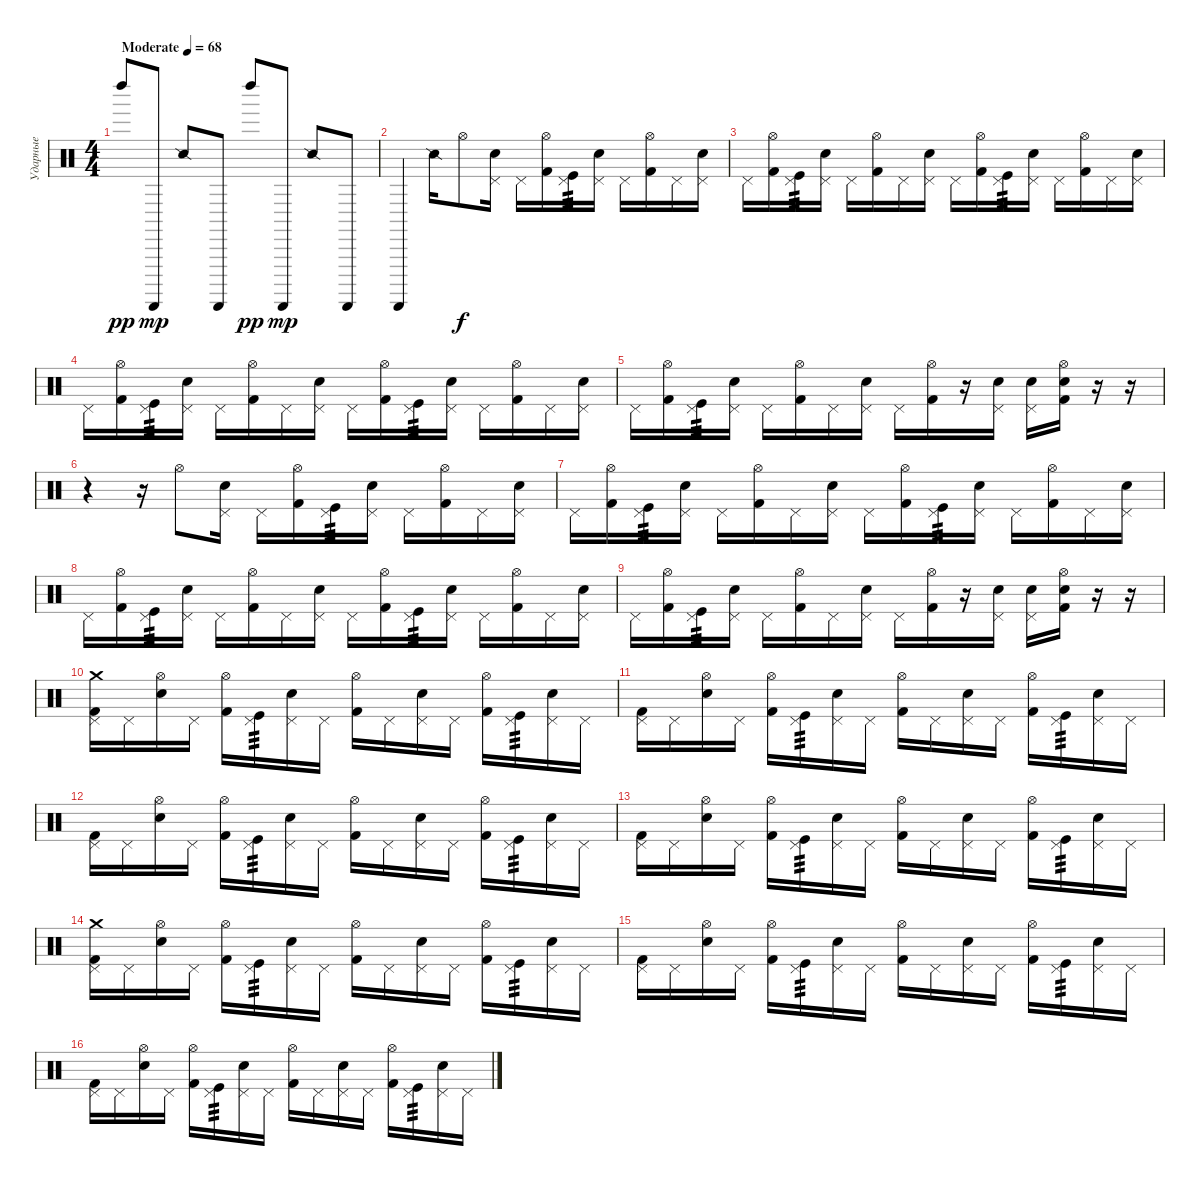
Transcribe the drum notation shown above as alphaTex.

\track ("Ударные" "Ударные") {instrument percussion}
\staff {score}
\articulation defaults
\ts (4 4)
\tempo (68 "Moderate")
\clef neutral
\ks c "Left Maraca (hit)".8{dy pp} "Guiro (scrap-return)".8{dy mp} "Snare (side stick) 2".8 "Guiro (scrap-return)".8 "Left Maraca (hit)".8{dy pp} "Guiro (scrap-return)".8{dy mp} "Snare (side stick) 2".8 "Guiro (scrap-return)".8
|
"Guiro (scrap-return)".4 "Snare (side stick) 2".16 "Hi-Hat (open)".8{dy f} ("Pedal Hi-Hat (hit)" "Snare (hit) 2").16 "Pedal Hi-Hat (hit)".16 ("Hi-Hat (open)" "Kick (hit) 2").16 ("Pedal Hi-Hat (hit)" "Kick (hit)").16{tp 3} ("Pedal Hi-Hat (hit)" "Snare (hit) 2").16 "Pedal Hi-Hat (hit)".16 ("Hi-Hat (open)" "Kick (hit) 2").16 "Pedal Hi-Hat (hit)".16 ("Pedal Hi-Hat (hit)" "Snare (hit) 2").16 |
"Pedal Hi-Hat (hit)".16 ("Hi-Hat (open)" "Kick (hit) 2").16 ("Pedal Hi-Hat (hit)" "Kick (hit)").16{tp 3} ("Pedal Hi-Hat (hit)" "Snare (hit) 2").16 "Pedal Hi-Hat (hit)".16 ("Hi-Hat (open)" "Kick (hit) 2").16 "Pedal Hi-Hat (hit)".16 ("Pedal Hi-Hat (hit)" "Snare (hit) 2").16 "Pedal Hi-Hat (hit)".16 ("Hi-Hat (open)" "Kick (hit) 2").16 ("Pedal Hi-Hat (hit)" "Kick (hit)").16{tp 3} ("Pedal Hi-Hat (hit)" "Snare (hit) 2").16 "Pedal Hi-Hat (hit)".16 ("Hi-Hat (open)" "Kick (hit) 2").16 "Pedal Hi-Hat (hit)".16 ("Pedal Hi-Hat (hit)" "Snare (hit) 2").16 |
"Pedal Hi-Hat (hit)".16 ("Hi-Hat (open)" "Kick (hit) 2").16 ("Pedal Hi-Hat (hit)" "Kick (hit)").16{tp 3} ("Pedal Hi-Hat (hit)" "Snare (hit) 2").16 "Pedal Hi-Hat (hit)".16 ("Hi-Hat (open)" "Kick (hit) 2").16 "Pedal Hi-Hat (hit)".16 ("Pedal Hi-Hat (hit)" "Snare (hit) 2").16 "Pedal Hi-Hat (hit)".16 ("Hi-Hat (open)" "Kick (hit) 2").16 ("Pedal Hi-Hat (hit)" "Kick (hit)").16{tp 3} ("Pedal Hi-Hat (hit)" "Snare (hit) 2").16 "Pedal Hi-Hat (hit)".16 ("Hi-Hat (open)" "Kick (hit) 2").16 "Pedal Hi-Hat (hit)".16 ("Pedal Hi-Hat (hit)" "Snare (hit) 2").16 |
"Pedal Hi-Hat (hit)".16 ("Hi-Hat (open)" "Kick (hit) 2").16 ("Pedal Hi-Hat (hit)" "Kick (hit)").16{tp 3} ("Pedal Hi-Hat (hit)" "Snare (hit) 2").16 "Pedal Hi-Hat (hit)".16 ("Hi-Hat (open)" "Kick (hit) 2").16 "Pedal Hi-Hat (hit)".16 ("Pedal Hi-Hat (hit)" "Snare (hit) 2").16 "Pedal Hi-Hat (hit)".16 ("Hi-Hat (open)" "Kick (hit) 2").16 r.16 ("Pedal Hi-Hat (hit)" "Snare (hit) 2").16 ("Pedal Hi-Hat (hit)" "Snare (hit) 2").16 ("Hi-Hat (open)" "Snare (hit) 2" "Kick (hit) 2").16 r.16 r.16 |
r.4 r.16 "Hi-Hat (open)".8 ("Pedal Hi-Hat (hit)" "Snare (hit) 2").16 "Pedal Hi-Hat (hit)".16 ("Hi-Hat (open)" "Kick (hit) 2").16 ("Pedal Hi-Hat (hit)" "Kick (hit)").16{tp 3} ("Pedal Hi-Hat (hit)" "Snare (hit) 2").16 "Pedal Hi-Hat (hit)".16 ("Hi-Hat (open)" "Kick (hit) 2").16 "Pedal Hi-Hat (hit)".16 ("Pedal Hi-Hat (hit)" "Snare (hit) 2").16 |
"Pedal Hi-Hat (hit)".16 ("Hi-Hat (open)" "Kick (hit) 2").16 ("Pedal Hi-Hat (hit)" "Kick (hit)").16{tp 3} ("Pedal Hi-Hat (hit)" "Snare (hit) 2").16 "Pedal Hi-Hat (hit)".16 ("Hi-Hat (open)" "Kick (hit) 2").16 "Pedal Hi-Hat (hit)".16 ("Pedal Hi-Hat (hit)" "Snare (hit) 2").16 "Pedal Hi-Hat (hit)".16 ("Hi-Hat (open)" "Kick (hit) 2").16 ("Pedal Hi-Hat (hit)" "Kick (hit)").16{tp 3} ("Pedal Hi-Hat (hit)" "Snare (hit) 2").16 "Pedal Hi-Hat (hit)".16 ("Hi-Hat (open)" "Kick (hit) 2").16 "Pedal Hi-Hat (hit)".16 ("Pedal Hi-Hat (hit)" "Snare (hit) 2").16 |
"Pedal Hi-Hat (hit)".16 ("Hi-Hat (open)" "Kick (hit) 2").16 ("Pedal Hi-Hat (hit)" "Kick (hit)").16{tp 3} ("Pedal Hi-Hat (hit)" "Snare (hit) 2").16 "Pedal Hi-Hat (hit)".16 ("Hi-Hat (open)" "Kick (hit) 2").16 "Pedal Hi-Hat (hit)".16 ("Pedal Hi-Hat (hit)" "Snare (hit) 2").16 "Pedal Hi-Hat (hit)".16 ("Hi-Hat (open)" "Kick (hit) 2").16 ("Pedal Hi-Hat (hit)" "Kick (hit)").16{tp 3} ("Pedal Hi-Hat (hit)" "Snare (hit) 2").16 "Pedal Hi-Hat (hit)".16 ("Hi-Hat (open)" "Kick (hit) 2").16 "Pedal Hi-Hat (hit)".16 ("Pedal Hi-Hat (hit)" "Snare (hit) 2").16 |
"Pedal Hi-Hat (hit)".16 ("Hi-Hat (open)" "Kick (hit) 2").16 ("Pedal Hi-Hat (hit)" "Kick (hit)").16{tp 3} ("Pedal Hi-Hat (hit)" "Snare (hit) 2").16 "Pedal Hi-Hat (hit)".16 ("Hi-Hat (open)" "Kick (hit) 2").16 "Pedal Hi-Hat (hit)".16 ("Pedal Hi-Hat (hit)" "Snare (hit) 2").16 "Pedal Hi-Hat (hit)".16 ("Hi-Hat (open)" "Kick (hit) 2").16 r.16 ("Pedal Hi-Hat (hit)" "Snare (hit) 2").16 ("Pedal Hi-Hat (hit)" "Snare (hit) 2").16 ("Hi-Hat (open)" "Snare (hit) 2" "Kick (hit) 2").16 r.16 r.16 |
("Crash medium (hit)" "Pedal Hi-Hat (hit)" "Kick (hit) 2").16 "Pedal Hi-Hat (hit)".16 ("Hi-Hat (open)" "Snare (hit) 2").16 "Pedal Hi-Hat (hit)".16 ("Hi-Hat (open)" "Kick (hit) 2").16 ("Pedal Hi-Hat (hit)" "Kick (hit)").16{tp 3} ("Pedal Hi-Hat (hit)" "Snare (hit) 2").16 "Pedal Hi-Hat (hit)".16 ("Hi-Hat (open)" "Kick (hit) 2").16 "Pedal Hi-Hat (hit)".16 ("Pedal Hi-Hat (hit)" "Snare (hit) 2").16 "Pedal Hi-Hat (hit)".16 ("Hi-Hat (open)" "Kick (hit) 2").16 ("Pedal Hi-Hat (hit)" "Kick (hit)").16{tp 3} ("Pedal Hi-Hat (hit)" "Snare (hit) 2").16 "Pedal Hi-Hat (hit)".16 |
("Pedal Hi-Hat (hit)" "Kick (hit) 2").16 "Pedal Hi-Hat (hit)".16 ("Hi-Hat (open)" "Snare (hit) 2").16 "Pedal Hi-Hat (hit)".16 ("Hi-Hat (open)" "Kick (hit) 2").16 ("Pedal Hi-Hat (hit)" "Kick (hit)").16{tp 3} ("Pedal Hi-Hat (hit)" "Snare (hit) 2").16 "Pedal Hi-Hat (hit)".16 ("Hi-Hat (open)" "Kick (hit) 2").16 "Pedal Hi-Hat (hit)".16 ("Pedal Hi-Hat (hit)" "Snare (hit) 2").16 "Pedal Hi-Hat (hit)".16 ("Hi-Hat (open)" "Kick (hit) 2").16 ("Pedal Hi-Hat (hit)" "Kick (hit)").16{tp 3} ("Pedal Hi-Hat (hit)" "Snare (hit) 2").16 "Pedal Hi-Hat (hit)".16 |
("Pedal Hi-Hat (hit)" "Kick (hit) 2").16 "Pedal Hi-Hat (hit)".16 ("Hi-Hat (open)" "Snare (hit) 2").16 "Pedal Hi-Hat (hit)".16 ("Hi-Hat (open)" "Kick (hit) 2").16 ("Pedal Hi-Hat (hit)" "Kick (hit)").16{tp 3} ("Pedal Hi-Hat (hit)" "Snare (hit) 2").16 "Pedal Hi-Hat (hit)".16 ("Hi-Hat (open)" "Kick (hit) 2").16 "Pedal Hi-Hat (hit)".16 ("Pedal Hi-Hat (hit)" "Snare (hit) 2").16 "Pedal Hi-Hat (hit)".16 ("Hi-Hat (open)" "Kick (hit) 2").16 ("Pedal Hi-Hat (hit)" "Kick (hit)").16{tp 3} ("Pedal Hi-Hat (hit)" "Snare (hit) 2").16 "Pedal Hi-Hat (hit)".16 |
("Pedal Hi-Hat (hit)" "Kick (hit) 2").16 "Pedal Hi-Hat (hit)".16 ("Hi-Hat (open)" "Snare (hit) 2").16 "Pedal Hi-Hat (hit)".16 ("Hi-Hat (open)" "Kick (hit) 2").16 ("Pedal Hi-Hat (hit)" "Kick (hit)").16{tp 3} ("Pedal Hi-Hat (hit)" "Snare (hit) 2").16 "Pedal Hi-Hat (hit)".16 ("Hi-Hat (open)" "Kick (hit) 2").16 "Pedal Hi-Hat (hit)".16 ("Pedal Hi-Hat (hit)" "Snare (hit) 2").16 "Pedal Hi-Hat (hit)".16 ("Hi-Hat (open)" "Kick (hit) 2").16 ("Pedal Hi-Hat (hit)" "Kick (hit)").16{tp 3} ("Pedal Hi-Hat (hit)" "Snare (hit) 2").16 "Pedal Hi-Hat (hit)".16 |
("Crash medium (hit)" "Pedal Hi-Hat (hit)" "Kick (hit) 2").16 "Pedal Hi-Hat (hit)".16 ("Hi-Hat (open)" "Snare (hit) 2").16 "Pedal Hi-Hat (hit)".16 ("Hi-Hat (open)" "Kick (hit) 2").16 ("Pedal Hi-Hat (hit)" "Kick (hit)").16{tp 3} ("Pedal Hi-Hat (hit)" "Snare (hit) 2").16 "Pedal Hi-Hat (hit)".16 ("Hi-Hat (open)" "Kick (hit) 2").16 "Pedal Hi-Hat (hit)".16 ("Pedal Hi-Hat (hit)" "Snare (hit) 2").16 "Pedal Hi-Hat (hit)".16 ("Hi-Hat (open)" "Kick (hit) 2").16 ("Pedal Hi-Hat (hit)" "Kick (hit)").16{tp 3} ("Pedal Hi-Hat (hit)" "Snare (hit) 2").16 "Pedal Hi-Hat (hit)".16 |
("Pedal Hi-Hat (hit)" "Kick (hit) 2").16 "Pedal Hi-Hat (hit)".16 ("Hi-Hat (open)" "Snare (hit) 2").16 "Pedal Hi-Hat (hit)".16 ("Hi-Hat (open)" "Kick (hit) 2").16 ("Pedal Hi-Hat (hit)" "Kick (hit)").16{tp 3} ("Pedal Hi-Hat (hit)" "Snare (hit) 2").16 "Pedal Hi-Hat (hit)".16 ("Hi-Hat (open)" "Kick (hit) 2").16 "Pedal Hi-Hat (hit)".16 ("Pedal Hi-Hat (hit)" "Snare (hit) 2").16 "Pedal Hi-Hat (hit)".16 ("Hi-Hat (open)" "Kick (hit) 2").16 ("Pedal Hi-Hat (hit)" "Kick (hit)").16{tp 3} ("Pedal Hi-Hat (hit)" "Snare (hit) 2").16 "Pedal Hi-Hat (hit)".16 |
("Pedal Hi-Hat (hit)" "Kick (hit) 2").16 "Pedal Hi-Hat (hit)".16 ("Hi-Hat (open)" "Snare (hit) 2").16 "Pedal Hi-Hat (hit)".16 ("Hi-Hat (open)" "Kick (hit) 2").16 ("Pedal Hi-Hat (hit)" "Kick (hit)").16{tp 3} ("Pedal Hi-Hat (hit)" "Snare (hit) 2").16 "Pedal Hi-Hat (hit)".16 ("Hi-Hat (open)" "Kick (hit) 2").16 "Pedal Hi-Hat (hit)".16 ("Pedal Hi-Hat (hit)" "Snare (hit) 2").16 "Pedal Hi-Hat (hit)".16 ("Hi-Hat (open)" "Kick (hit) 2").16 ("Pedal Hi-Hat (hit)" "Kick (hit)").16{tp 3} ("Pedal Hi-Hat (hit)" "Snare (hit) 2").16 "Pedal Hi-Hat (hit)".16
